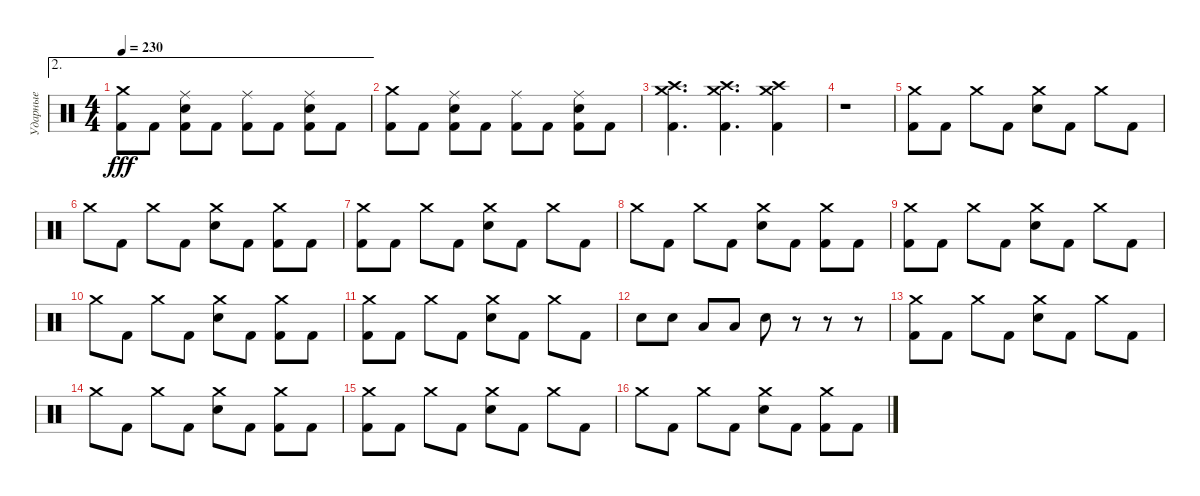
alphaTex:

\track ("Ударные" "Ударные") {instrument percussion}
\staff {score}
\articulation defaults
\ae 2
\ts (4 4)
\tempo 230
\clef neutral
\ks c
("Kick (hit) 2" "Crash medium (hit)").8{dy fff} "Kick (hit) 2".8 ("Kick (hit) 2" "Electric Snare (hit)" "Ride (middle)").8 "Kick (hit) 2".8 ("Kick (hit) 2" "Ride (middle)").8 "Kick (hit) 2".8 ("Kick (hit) 2" "Electric Snare (hit)" "Ride (middle)").8 "Kick (hit) 2".8 |
("Kick (hit) 2" "Crash medium (hit)").8 "Kick (hit) 2".8 ("Kick (hit) 2" "Electric Snare (hit)" "Ride (middle)").8 "Kick (hit) 2".8 ("Kick (hit) 2" "Ride (middle)").8 "Kick (hit) 2".8 ("Kick (hit) 2" "Electric Snare (hit)" "Ride (middle)").8 "Kick (hit) 2".8 |
("Kick (hit) 2" "Crash high (hit)" "Crash medium (hit)").4{d} ("Kick (hit) 2" "Crash high (hit)" "Crash medium (hit)").4{d} ("Kick (hit) 2" "Crash high (hit)" "Crash medium (hit)").4 |
r.1 |
("Kick (hit) 2" "Crash medium (hit)").8 "Kick (hit) 2".8 "Crash medium (hit)".8 "Kick (hit) 2".8 ("Electric Snare (hit)" "Crash medium (hit)").8 "Kick (hit) 2".8 "Crash medium (hit)".8 "Kick (hit) 2".8 |
"Crash medium (hit)".8 "Kick (hit) 2".8 "Crash medium (hit)".8 "Kick (hit) 2".8 ("Electric Snare (hit)" "Crash medium (hit)").8 "Kick (hit) 2".8 ("Kick (hit) 2" "Crash medium (hit)").8 "Kick (hit) 2".8 |
("Kick (hit) 2" "Crash medium (hit)").8 "Kick (hit) 2".8 "Crash medium (hit)".8 "Kick (hit) 2".8 ("Electric Snare (hit)" "Crash medium (hit)").8 "Kick (hit) 2".8 "Crash medium (hit)".8 "Kick (hit) 2".8 |
"Crash medium (hit)".8 "Kick (hit) 2".8 "Crash medium (hit)".8 "Kick (hit) 2".8 ("Electric Snare (hit)" "Crash medium (hit)").8 "Kick (hit) 2".8 ("Kick (hit) 2" "Crash medium (hit)").8 "Kick (hit) 2".8 |
("Kick (hit) 2" "Crash medium (hit)").8 "Kick (hit) 2".8 "Crash medium (hit)".8 "Kick (hit) 2".8 ("Electric Snare (hit)" "Crash medium (hit)").8 "Kick (hit) 2".8 "Crash medium (hit)".8 "Kick (hit) 2".8 |
"Crash medium (hit)".8 "Kick (hit) 2".8 "Crash medium (hit)".8 "Kick (hit) 2".8 ("Electric Snare (hit)" "Crash medium (hit)").8 "Kick (hit) 2".8 ("Kick (hit) 2" "Crash medium (hit)").8 "Kick (hit) 2".8 |
("Kick (hit) 2" "Crash medium (hit)").8 "Kick (hit) 2".8 "Crash medium (hit)".8 "Kick (hit) 2".8 ("Electric Snare (hit)" "Crash medium (hit)").8 "Kick (hit) 2".8 "Crash medium (hit)".8 "Kick (hit) 2".8 |
"Electric Snare (hit)".8 "Electric Snare (hit)".8 "Low Tom (hit)".8 "Low Tom (hit)".8 "Electric Snare (hit)".8 r.8 r.8 r.8 |
("Kick (hit) 2" "Crash medium (hit)").8 "Kick (hit) 2".8 "Crash medium (hit)".8 "Kick (hit) 2".8 ("Electric Snare (hit)" "Crash medium (hit)").8 "Kick (hit) 2".8 "Crash medium (hit)".8 "Kick (hit) 2".8 |
"Crash medium (hit)".8 "Kick (hit) 2".8 "Crash medium (hit)".8 "Kick (hit) 2".8 ("Electric Snare (hit)" "Crash medium (hit)").8 "Kick (hit) 2".8 ("Kick (hit) 2" "Crash medium (hit)").8 "Kick (hit) 2".8 |
("Kick (hit) 2" "Crash medium (hit)").8 "Kick (hit) 2".8 "Crash medium (hit)".8 "Kick (hit) 2".8 ("Electric Snare (hit)" "Crash medium (hit)").8 "Kick (hit) 2".8 "Crash medium (hit)".8 "Kick (hit) 2".8 |
"Crash medium (hit)".8 "Kick (hit) 2".8 "Crash medium (hit)".8 "Kick (hit) 2".8 ("Electric Snare (hit)" "Crash medium (hit)").8 "Kick (hit) 2".8 ("Kick (hit) 2" "Crash medium (hit)").8 "Kick (hit) 2".8
